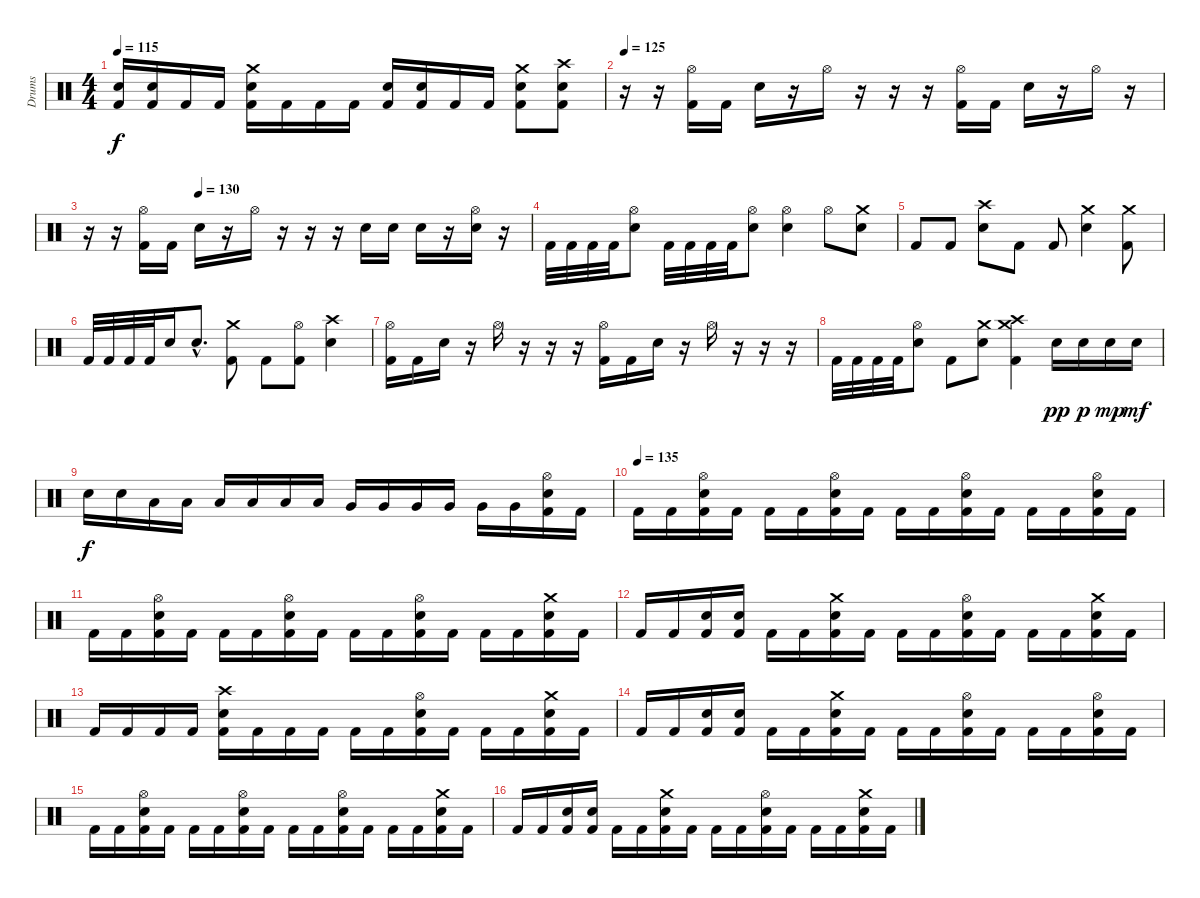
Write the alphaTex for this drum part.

\track ("Drums" "Drums") {instrument percussion}
\staff {score}
\articulation defaults
\ts (4 4)
\tempo 115
\clef neutral
\ks c
("Snare (hit) 2" "Kick (hit) 2").16{dy f} ("Snare (hit) 2" "Kick (hit) 2").16 "Kick (hit) 2".16 "Kick (hit) 2".16 ("Crash medium (hit)" "Snare (hit) 2" "Kick (hit) 2").16 "Kick (hit) 2".16 "Kick (hit) 2".16 "Kick (hit) 2".16 ("Snare (hit) 2" "Kick (hit) 2").16 ("Snare (hit) 2" "Kick (hit) 2").16 "Kick (hit) 2".16 "Kick (hit) 2".16 ("Crash medium (hit)" "Snare (hit) 2" "Kick (hit) 2").8 ("Crash high (hit)" "Snare (hit) 2" "Kick (hit) 2").8 |
\tempo 125
r.16 r.16 ("Hi-Hat (open)" "Kick (hit) 2").16 "Kick (hit) 2".16 "Snare (hit) 2".16 r.16 "Hi-Hat (open)".16 r.16 r.16 r.16 ("Hi-Hat (open)" "Kick (hit) 2").16 "Kick (hit) 2".16 "Snare (hit) 2".16 r.16 "Hi-Hat (open)".16 r.16 |
\tempo (130 0.25)
r.16 r.16 ("Hi-Hat (open)" "Kick (hit) 2").16 "Kick (hit) 2".16 "Snare (hit) 2".16 r.16 "Hi-Hat (open)".16 r.16 r.16 r.16 "Snare (hit) 2".16 "Snare (hit) 2".16 "Snare (hit) 2".16 r.16 ("Hi-Hat (open)" "Snare (hit) 2").16 r.16 |
"Kick (hit) 2".32 "Kick (hit) 2".32 "Kick (hit) 2".32 "Kick (hit) 2".32 ("Hi-Hat (open)" "Snare (hit) 2").8 "Kick (hit) 2".32 "Kick (hit) 2".32 "Kick (hit) 2".32 "Kick (hit) 2".32 ("Hi-Hat (open)" "Snare (hit) 2").8 ("Hi-Hat (open)" "Snare (hit) 2").4 "Hi-Hat (open)".8 ("Crash medium (hit)" "Snare (hit) 2").8 |
"Kick (hit) 2".8 "Kick (hit) 2".8 ("Crash high (hit)" "Snare (hit) 2").8 "Kick (hit) 2".8 "Kick (hit) 2".8 ("Crash medium (hit)" "Snare (hit) 2").4 ("Crash medium (hit)" "Kick (hit) 2").8 |
"Kick (hit) 2".32 "Kick (hit) 2".32 "Kick (hit) 2".32 "Kick (hit) 2".32 "Snare (hit) 2".16 "Snare (hit) 2"{hac}.8{d} ("Crash medium (hit)" "Kick (hit) 2").8 "Kick (hit) 2".8 ("Hi-Hat (open)" "Kick (hit) 2").8 ("Crash high (hit)" "Snare (hit) 2").4 |
("Hi-Hat (open)" "Kick (hit) 2").16 "Kick (hit) 2".16 "Snare (hit) 2".16 r.16 "Hi-Hat (open)".16 r.16 r.16 r.16 ("Hi-Hat (open)" "Kick (hit) 2").16 "Kick (hit) 2".16 "Snare (hit) 2".16 r.16 "Hi-Hat (open)".16 r.16 r.16 r.16 |
"Kick (hit) 2".32 "Kick (hit) 2".32 "Kick (hit) 2".32 "Kick (hit) 2".32 ("Hi-Hat (open)" "Snare (hit) 2").8 "Kick (hit) 2".8 ("Crash medium (hit)" "Snare (hit) 2").8 ("Crash high (hit)" "Crash medium (hit)" "Kick (hit) 2").4 "Snare (hit) 2".16{dy pp} "Snare (hit) 2".16{dy p} "Snare (hit) 2".16{dy mp} "Snare (hit) 2".16{dy mf} |
"Snare (hit) 2".16{dy f} "Snare (hit) 2".16 "Low Tom (hit)".16 "Low Tom (hit)".16 "Low Tom (hit)".16 "Low Tom (hit)".16 "Low Tom (hit)".16 "Low Tom (hit)".16 "Very Low Tom (hit)".16 "Very Low Tom (hit)".16 "Very Low Tom (hit)".16 "Very Low Tom (hit)".16 "Very Low Tom (hit)".16 "Very Low Tom (hit)".16 ("Hi-Hat (open)" "Snare (hit) 2" "Kick (hit) 2").16 "Kick (hit) 2".16 |
\tempo (135)
"Kick (hit) 2".16 "Kick (hit) 2".16 ("Hi-Hat (open)" "Snare (hit) 2" "Kick (hit) 2").16 "Kick (hit) 2".16 "Kick (hit) 2".16 "Kick (hit) 2".16 ("Hi-Hat (open)" "Snare (hit) 2" "Kick (hit) 2").16 "Kick (hit) 2".16 "Kick (hit) 2".16 "Kick (hit) 2".16 ("Hi-Hat (open)" "Snare (hit) 2" "Kick (hit) 2").16 "Kick (hit) 2".16 "Kick (hit) 2".16 "Kick (hit) 2".16 ("Hi-Hat (open)" "Snare (hit) 2" "Kick (hit) 2").16 "Kick (hit) 2".16 |
"Kick (hit) 2".16 "Kick (hit) 2".16 ("Hi-Hat (open)" "Snare (hit) 2" "Kick (hit) 2").16 "Kick (hit) 2".16 "Kick (hit) 2".16 "Kick (hit) 2".16 ("Hi-Hat (open)" "Snare (hit) 2" "Kick (hit) 2").16 "Kick (hit) 2".16 "Kick (hit) 2".16 "Kick (hit) 2".16 ("Hi-Hat (open)" "Snare (hit) 2" "Kick (hit) 2").16 "Kick (hit) 2".16 "Kick (hit) 2".16 "Kick (hit) 2".16 ("Crash medium (hit)" "Snare (hit) 2" "Kick (hit) 2").16 "Kick (hit) 2".16 |
"Kick (hit) 2".16 "Kick (hit) 2".16 ("Snare (hit) 2" "Kick (hit) 2").16 ("Snare (hit) 2" "Kick (hit) 2").16 "Kick (hit) 2".16 "Kick (hit) 2".16 ("Crash medium (hit)" "Snare (hit) 2" "Kick (hit) 2").16 "Kick (hit) 2".16 "Kick (hit) 2".16 "Kick (hit) 2".16 ("Hi-Hat (open)" "Snare (hit) 2" "Kick (hit) 2").16 "Kick (hit) 2".16 "Kick (hit) 2".16 "Kick (hit) 2".16 ("Crash medium (hit)" "Snare (hit) 2" "Kick (hit) 2").16 "Kick (hit) 2".16 |
"Kick (hit) 2".16 "Kick (hit) 2".16 "Kick (hit) 2".16 "Kick (hit) 2".16 ("Crash high (hit)" "Snare (hit) 2" "Kick (hit) 2").16 "Kick (hit) 2".16 "Kick (hit) 2".16 "Kick (hit) 2".16 "Kick (hit) 2".16 "Kick (hit) 2".16 ("Hi-Hat (open)" "Snare (hit) 2" "Kick (hit) 2").16 "Kick (hit) 2".16 "Kick (hit) 2".16 "Kick (hit) 2".16 ("Crash medium (hit)" "Snare (hit) 2" "Kick (hit) 2").16 "Kick (hit) 2".16 |
"Kick (hit) 2".16 "Kick (hit) 2".16 ("Snare (hit) 2" "Kick (hit) 2").16 ("Snare (hit) 2" "Kick (hit) 2").16 "Kick (hit) 2".16 "Kick (hit) 2".16 ("Crash medium (hit)" "Snare (hit) 2" "Kick (hit) 2").16 "Kick (hit) 2".16 "Kick (hit) 2".16 "Kick (hit) 2".16 ("Hi-Hat (open)" "Snare (hit) 2" "Kick (hit) 2").16 "Kick (hit) 2".16 "Kick (hit) 2".16 "Kick (hit) 2".16 ("Hi-Hat (open)" "Snare (hit) 2" "Kick (hit) 2").16 "Kick (hit) 2".16 |
"Kick (hit) 2".16 "Kick (hit) 2".16 ("Hi-Hat (open)" "Snare (hit) 2" "Kick (hit) 2").16 "Kick (hit) 2".16 "Kick (hit) 2".16 "Kick (hit) 2".16 ("Hi-Hat (open)" "Snare (hit) 2" "Kick (hit) 2").16 "Kick (hit) 2".16 "Kick (hit) 2".16 "Kick (hit) 2".16 ("Hi-Hat (open)" "Snare (hit) 2" "Kick (hit) 2").16 "Kick (hit) 2".16 "Kick (hit) 2".16 "Kick (hit) 2".16 ("Crash medium (hit)" "Snare (hit) 2" "Kick (hit) 2").16 "Kick (hit) 2".16 |
"Kick (hit) 2".16 "Kick (hit) 2".16 ("Snare (hit) 2" "Kick (hit) 2").16 ("Snare (hit) 2" "Kick (hit) 2").16 "Kick (hit) 2".16 "Kick (hit) 2".16 ("Crash medium (hit)" "Snare (hit) 2" "Kick (hit) 2").16 "Kick (hit) 2".16 "Kick (hit) 2".16 "Kick (hit) 2".16 ("Hi-Hat (open)" "Snare (hit) 2" "Kick (hit) 2").16 "Kick (hit) 2".16 "Kick (hit) 2".16 "Kick (hit) 2".16 ("Crash medium (hit)" "Snare (hit) 2" "Kick (hit) 2").16 "Kick (hit) 2".16
